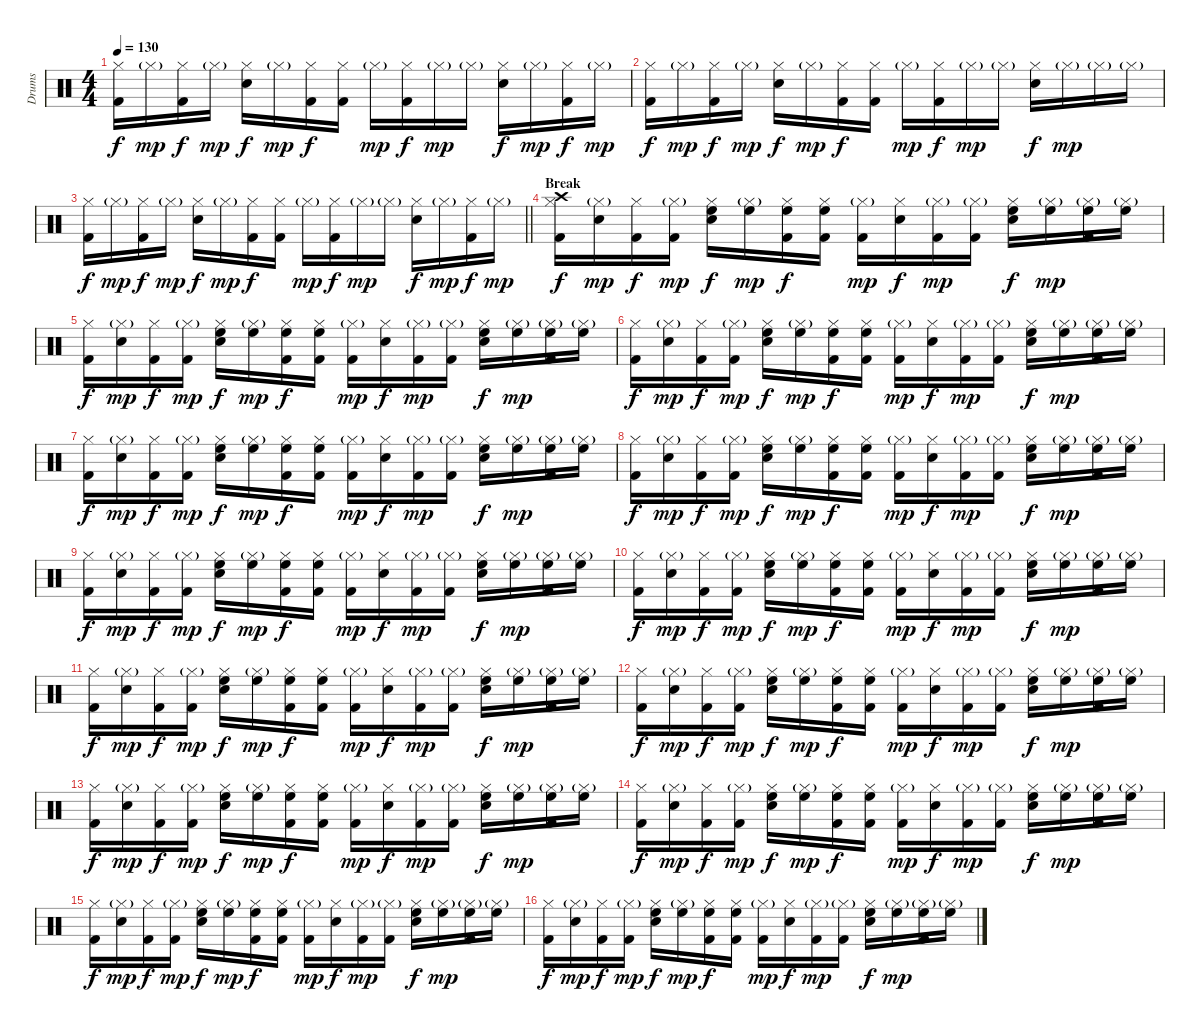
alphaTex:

\track ("Drums" "Drums") {instrument percussion}
\staff {score}
\articulation defaults
\ts (4 4)
\tempo 130
\clef neutral
\ks c
("Hi-Hat (closed)" "Kick (hit) 2").16{dy f} "Hi-Hat (closed)"{g}.16{dy mp} ("Hi-Hat (closed)" "Kick (hit) 2").16{dy f} "Hi-Hat (closed)"{g}.16{dy mp} ("Hi-Hat (closed)" "Snare (hit) 2").16{dy f} "Hi-Hat (closed)"{g}.16{dy mp} ("Hi-Hat (closed)" "Kick (hit) 2").16{dy f} ("Hi-Hat (closed)" "Kick (hit) 2").16 "Hi-Hat (closed)"{g}.16{dy mp} ("Hi-Hat (closed)" "Kick (hit) 2").16{dy f} "Hi-Hat (closed)"{g}.16{dy mp} "Hi-Hat (closed)"{g}.16 ("Hi-Hat (closed)" "Snare (hit) 2").16{dy f} "Hi-Hat (closed)"{g}.16{dy mp} ("Hi-Hat (closed)" "Kick (hit) 2").16{dy f} "Hi-Hat (closed)"{g}.16{dy mp} |
("Hi-Hat (closed)" "Kick (hit) 2").16{dy f} "Hi-Hat (closed)"{g}.16{dy mp} ("Hi-Hat (closed)" "Kick (hit) 2").16{dy f} "Hi-Hat (closed)"{g}.16{dy mp} ("Hi-Hat (closed)" "Snare (hit) 2").16{dy f} "Hi-Hat (closed)"{g}.16{dy mp} ("Hi-Hat (closed)" "Kick (hit) 2").16{dy f} ("Hi-Hat (closed)" "Kick (hit) 2").16 "Hi-Hat (closed)"{g}.16{dy mp} ("Hi-Hat (closed)" "Kick (hit) 2").16{dy f} "Hi-Hat (closed)"{g}.16{dy mp} "Hi-Hat (closed)"{g}.16 ("Hi-Hat (closed)" "Snare (hit) 2").16{dy f} "Hi-Hat (closed)"{g}.16{dy mp} "Hi-Hat (closed)"{g}.16 "Hi-Hat (closed)"{g}.16 |
\barLineRight lightlight
("Hi-Hat (closed)" "Kick (hit) 2").16{dy f} "Hi-Hat (closed)"{g}.16{dy mp} ("Hi-Hat (closed)" "Kick (hit) 2").16{dy f} "Hi-Hat (closed)"{g}.16{dy mp} ("Hi-Hat (closed)" "Snare (hit) 2").16{dy f} "Hi-Hat (closed)"{g}.16{dy mp} ("Hi-Hat (closed)" "Kick (hit) 2").16{dy f} ("Hi-Hat (closed)" "Kick (hit) 2").16 "Hi-Hat (closed)"{g}.16{dy mp} ("Hi-Hat (closed)" "Kick (hit) 2").16{dy f} "Hi-Hat (closed)"{g}.16{dy mp} "Hi-Hat (closed)"{g}.16 ("Hi-Hat (closed)" "Snare (hit) 2").16{dy f} "Hi-Hat (closed)"{g}.16{dy mp} ("Hi-Hat (closed)" "Kick (hit) 2").16{dy f} "Hi-Hat (closed)"{g}.16{dy mp} |
\section ("" "Break")
("Hi-Hat (closed)" "Kick (hit) 2" "Crash high (hit)").16{dy f} ("Hi-Hat (closed)"{g} "Snare (hit) 2").16{dy mp} ("Hi-Hat (closed)" "Kick (hit) 2").16{dy f} ("Hi-Hat (closed)"{g} "Kick (hit) 2").16{dy mp} ("Hi-Hat (closed)" "Snare (hit) 2" "High Floor Tom (hit)").16{dy f} ("Hi-Hat (closed)"{g} "High Floor Tom (hit)").16{dy mp} ("Hi-Hat (closed)" "Kick (hit) 2" "High Floor Tom (hit)").16{dy f} ("Hi-Hat (closed)" "Kick (hit) 2" "High Floor Tom (hit)").16 ("Hi-Hat (closed)"{g} "Kick (hit) 2").16{dy mp} ("Hi-Hat (closed)" "Snare (hit) 2").16{dy f} ("Hi-Hat (closed)"{g} "Kick (hit) 2").16{dy mp} ("Hi-Hat (closed)"{g} "Kick (hit) 2").16 ("Hi-Hat (closed)" "Snare (hit) 2" "High Floor Tom (hit)").16{dy f} ("Hi-Hat (closed)"{g} "High Floor Tom (hit)").16{dy mp} ("Hi-Hat (closed)"{g} "Kick (hit) 2" "High Floor Tom (hit)").16 ("Hi-Hat (closed)"{g} "High Floor Tom (hit)").16 |
("Hi-Hat (closed)" "Kick (hit) 2").16{dy f} ("Hi-Hat (closed)"{g} "Snare (hit) 2").16{dy mp} ("Hi-Hat (closed)" "Kick (hit) 2").16{dy f} ("Hi-Hat (closed)"{g} "Kick (hit) 2").16{dy mp} ("Hi-Hat (closed)" "Snare (hit) 2" "High Floor Tom (hit)").16{dy f} ("Hi-Hat (closed)"{g} "High Floor Tom (hit)").16{dy mp} ("Hi-Hat (closed)" "Kick (hit) 2" "High Floor Tom (hit)").16{dy f} ("Hi-Hat (closed)" "Kick (hit) 2" "High Floor Tom (hit)").16 ("Hi-Hat (closed)"{g} "Kick (hit) 2").16{dy mp} ("Hi-Hat (closed)" "Snare (hit) 2").16{dy f} ("Hi-Hat (closed)"{g} "Kick (hit) 2").16{dy mp} ("Hi-Hat (closed)"{g} "Kick (hit) 2").16 ("Hi-Hat (closed)" "Snare (hit) 2" "High Floor Tom (hit)").16{dy f} ("Hi-Hat (closed)"{g} "High Floor Tom (hit)").16{dy mp} ("Hi-Hat (closed)"{g} "Kick (hit) 2" "High Floor Tom (hit)").16 ("Hi-Hat (closed)"{g} "High Floor Tom (hit)").16 |
("Hi-Hat (closed)" "Kick (hit) 2").16{dy f} ("Hi-Hat (closed)"{g} "Snare (hit) 2").16{dy mp} ("Hi-Hat (closed)" "Kick (hit) 2").16{dy f} ("Hi-Hat (closed)"{g} "Kick (hit) 2").16{dy mp} ("Hi-Hat (closed)" "Snare (hit) 2" "High Floor Tom (hit)").16{dy f} ("Hi-Hat (closed)"{g} "High Floor Tom (hit)").16{dy mp} ("Hi-Hat (closed)" "Kick (hit) 2" "High Floor Tom (hit)").16{dy f} ("Hi-Hat (closed)" "Kick (hit) 2" "High Floor Tom (hit)").16 ("Hi-Hat (closed)"{g} "Kick (hit) 2").16{dy mp} ("Hi-Hat (closed)" "Snare (hit) 2").16{dy f} ("Hi-Hat (closed)"{g} "Kick (hit) 2").16{dy mp} ("Hi-Hat (closed)"{g} "Kick (hit) 2").16 ("Hi-Hat (closed)" "Snare (hit) 2" "High Floor Tom (hit)").16{dy f} ("Hi-Hat (closed)"{g} "High Floor Tom (hit)").16{dy mp} ("Hi-Hat (closed)"{g} "Kick (hit) 2" "High Floor Tom (hit)").16 ("Hi-Hat (closed)"{g} "High Floor Tom (hit)").16 |
("Hi-Hat (closed)" "Kick (hit) 2").16{dy f} ("Hi-Hat (closed)"{g} "Snare (hit) 2").16{dy mp} ("Hi-Hat (closed)" "Kick (hit) 2").16{dy f} ("Hi-Hat (closed)"{g} "Kick (hit) 2").16{dy mp} ("Hi-Hat (closed)" "Snare (hit) 2" "High Floor Tom (hit)").16{dy f} ("Hi-Hat (closed)"{g} "High Floor Tom (hit)").16{dy mp} ("Hi-Hat (closed)" "Kick (hit) 2" "High Floor Tom (hit)").16{dy f} ("Hi-Hat (closed)" "Kick (hit) 2" "High Floor Tom (hit)").16 ("Hi-Hat (closed)"{g} "Kick (hit) 2").16{dy mp} ("Hi-Hat (closed)" "Snare (hit) 2").16{dy f} ("Hi-Hat (closed)"{g} "Kick (hit) 2").16{dy mp} ("Hi-Hat (closed)"{g} "Kick (hit) 2").16 ("Hi-Hat (closed)" "Snare (hit) 2" "High Floor Tom (hit)").16{dy f} ("Hi-Hat (closed)"{g} "High Floor Tom (hit)").16{dy mp} ("Hi-Hat (closed)"{g} "Kick (hit) 2" "High Floor Tom (hit)").16 ("Hi-Hat (closed)"{g} "High Floor Tom (hit)").16 |
("Hi-Hat (closed)" "Kick (hit) 2").16{dy f} ("Hi-Hat (closed)"{g} "Snare (hit) 2").16{dy mp} ("Hi-Hat (closed)" "Kick (hit) 2").16{dy f} ("Hi-Hat (closed)"{g} "Kick (hit) 2").16{dy mp} ("Hi-Hat (closed)" "Snare (hit) 2" "High Floor Tom (hit)").16{dy f} ("Hi-Hat (closed)"{g} "High Floor Tom (hit)").16{dy mp} ("Hi-Hat (closed)" "Kick (hit) 2" "High Floor Tom (hit)").16{dy f} ("Hi-Hat (closed)" "Kick (hit) 2" "High Floor Tom (hit)").16 ("Hi-Hat (closed)"{g} "Kick (hit) 2").16{dy mp} ("Hi-Hat (closed)" "Snare (hit) 2").16{dy f} ("Hi-Hat (closed)"{g} "Kick (hit) 2").16{dy mp} ("Hi-Hat (closed)"{g} "Kick (hit) 2").16 ("Hi-Hat (closed)" "Snare (hit) 2" "High Floor Tom (hit)").16{dy f} ("Hi-Hat (closed)"{g} "High Floor Tom (hit)").16{dy mp} ("Hi-Hat (closed)"{g} "Kick (hit) 2" "High Floor Tom (hit)").16 ("Hi-Hat (closed)"{g} "High Floor Tom (hit)").16 |
("Hi-Hat (closed)" "Kick (hit) 2").16{dy f} ("Hi-Hat (closed)"{g} "Snare (hit) 2").16{dy mp} ("Hi-Hat (closed)" "Kick (hit) 2").16{dy f} ("Hi-Hat (closed)"{g} "Kick (hit) 2").16{dy mp} ("Hi-Hat (closed)" "Snare (hit) 2" "High Floor Tom (hit)").16{dy f} ("Hi-Hat (closed)"{g} "High Floor Tom (hit)").16{dy mp} ("Hi-Hat (closed)" "Kick (hit) 2" "High Floor Tom (hit)").16{dy f} ("Hi-Hat (closed)" "Kick (hit) 2" "High Floor Tom (hit)").16 ("Hi-Hat (closed)"{g} "Kick (hit) 2").16{dy mp} ("Hi-Hat (closed)" "Snare (hit) 2").16{dy f} ("Hi-Hat (closed)"{g} "Kick (hit) 2").16{dy mp} ("Hi-Hat (closed)"{g} "Kick (hit) 2").16 ("Hi-Hat (closed)" "Snare (hit) 2" "High Floor Tom (hit)").16{dy f} ("Hi-Hat (closed)"{g} "High Floor Tom (hit)").16{dy mp} ("Hi-Hat (closed)"{g} "Kick (hit) 2" "High Floor Tom (hit)").16 ("Hi-Hat (closed)"{g} "High Floor Tom (hit)").16 |
("Hi-Hat (closed)" "Kick (hit) 2").16{dy f} ("Hi-Hat (closed)"{g} "Snare (hit) 2").16{dy mp} ("Hi-Hat (closed)" "Kick (hit) 2").16{dy f} ("Hi-Hat (closed)"{g} "Kick (hit) 2").16{dy mp} ("Hi-Hat (closed)" "Snare (hit) 2" "High Floor Tom (hit)").16{dy f} ("Hi-Hat (closed)"{g} "High Floor Tom (hit)").16{dy mp} ("Hi-Hat (closed)" "Kick (hit) 2" "High Floor Tom (hit)").16{dy f} ("Hi-Hat (closed)" "Kick (hit) 2" "High Floor Tom (hit)").16 ("Hi-Hat (closed)"{g} "Kick (hit) 2").16{dy mp} ("Hi-Hat (closed)" "Snare (hit) 2").16{dy f} ("Hi-Hat (closed)"{g} "Kick (hit) 2").16{dy mp} ("Hi-Hat (closed)"{g} "Kick (hit) 2").16 ("Hi-Hat (closed)" "Snare (hit) 2" "High Floor Tom (hit)").16{dy f} ("Hi-Hat (closed)"{g} "High Floor Tom (hit)").16{dy mp} ("Hi-Hat (closed)"{g} "Kick (hit) 2" "High Floor Tom (hit)").16 ("Hi-Hat (closed)"{g} "High Floor Tom (hit)").16 |
("Hi-Hat (closed)" "Kick (hit) 2").16{dy f} ("Hi-Hat (closed)"{g} "Snare (hit) 2").16{dy mp} ("Hi-Hat (closed)" "Kick (hit) 2").16{dy f} ("Hi-Hat (closed)"{g} "Kick (hit) 2").16{dy mp} ("Hi-Hat (closed)" "Snare (hit) 2" "High Floor Tom (hit)").16{dy f} ("Hi-Hat (closed)"{g} "High Floor Tom (hit)").16{dy mp} ("Hi-Hat (closed)" "Kick (hit) 2" "High Floor Tom (hit)").16{dy f} ("Hi-Hat (closed)" "Kick (hit) 2" "High Floor Tom (hit)").16 ("Hi-Hat (closed)"{g} "Kick (hit) 2").16{dy mp} ("Hi-Hat (closed)" "Snare (hit) 2").16{dy f} ("Hi-Hat (closed)"{g} "Kick (hit) 2").16{dy mp} ("Hi-Hat (closed)"{g} "Kick (hit) 2").16 ("Hi-Hat (closed)" "Snare (hit) 2" "High Floor Tom (hit)").16{dy f} ("Hi-Hat (closed)"{g} "High Floor Tom (hit)").16{dy mp} ("Hi-Hat (closed)"{g} "Kick (hit) 2" "High Floor Tom (hit)").16 ("Hi-Hat (closed)"{g} "High Floor Tom (hit)").16 |
("Hi-Hat (closed)" "Kick (hit) 2").16{dy f} ("Hi-Hat (closed)"{g} "Snare (hit) 2").16{dy mp} ("Hi-Hat (closed)" "Kick (hit) 2").16{dy f} ("Hi-Hat (closed)"{g} "Kick (hit) 2").16{dy mp} ("Hi-Hat (closed)" "Snare (hit) 2" "High Floor Tom (hit)").16{dy f} ("Hi-Hat (closed)"{g} "High Floor Tom (hit)").16{dy mp} ("Hi-Hat (closed)" "Kick (hit) 2" "High Floor Tom (hit)").16{dy f} ("Hi-Hat (closed)" "Kick (hit) 2" "High Floor Tom (hit)").16 ("Hi-Hat (closed)"{g} "Kick (hit) 2").16{dy mp} ("Hi-Hat (closed)" "Snare (hit) 2").16{dy f} ("Hi-Hat (closed)"{g} "Kick (hit) 2").16{dy mp} ("Hi-Hat (closed)"{g} "Kick (hit) 2").16 ("Hi-Hat (closed)" "Snare (hit) 2" "High Floor Tom (hit)").16{dy f} ("Hi-Hat (closed)"{g} "High Floor Tom (hit)").16{dy mp} ("Hi-Hat (closed)"{g} "Kick (hit) 2" "High Floor Tom (hit)").16 ("Hi-Hat (closed)"{g} "High Floor Tom (hit)").16 |
("Hi-Hat (closed)" "Kick (hit) 2").16{dy f} ("Hi-Hat (closed)"{g} "Snare (hit) 2").16{dy mp} ("Hi-Hat (closed)" "Kick (hit) 2").16{dy f} ("Hi-Hat (closed)"{g} "Kick (hit) 2").16{dy mp} ("Hi-Hat (closed)" "Snare (hit) 2" "High Floor Tom (hit)").16{dy f} ("Hi-Hat (closed)"{g} "High Floor Tom (hit)").16{dy mp} ("Hi-Hat (closed)" "Kick (hit) 2" "High Floor Tom (hit)").16{dy f} ("Hi-Hat (closed)" "Kick (hit) 2" "High Floor Tom (hit)").16 ("Hi-Hat (closed)"{g} "Kick (hit) 2").16{dy mp} ("Hi-Hat (closed)" "Snare (hit) 2").16{dy f} ("Hi-Hat (closed)"{g} "Kick (hit) 2").16{dy mp} ("Hi-Hat (closed)"{g} "Kick (hit) 2").16 ("Hi-Hat (closed)" "Snare (hit) 2" "High Floor Tom (hit)").16{dy f} ("Hi-Hat (closed)"{g} "High Floor Tom (hit)").16{dy mp} ("Hi-Hat (closed)"{g} "Kick (hit) 2" "High Floor Tom (hit)").16 ("Hi-Hat (closed)"{g} "High Floor Tom (hit)").16 |
("Hi-Hat (closed)" "Kick (hit) 2").16{dy f} ("Hi-Hat (closed)"{g} "Snare (hit) 2").16{dy mp} ("Hi-Hat (closed)" "Kick (hit) 2").16{dy f} ("Hi-Hat (closed)"{g} "Kick (hit) 2").16{dy mp} ("Hi-Hat (closed)" "Snare (hit) 2" "High Floor Tom (hit)").16{dy f} ("Hi-Hat (closed)"{g} "High Floor Tom (hit)").16{dy mp} ("Hi-Hat (closed)" "Kick (hit) 2" "High Floor Tom (hit)").16{dy f} ("Hi-Hat (closed)" "Kick (hit) 2" "High Floor Tom (hit)").16 ("Hi-Hat (closed)"{g} "Kick (hit) 2").16{dy mp} ("Hi-Hat (closed)" "Snare (hit) 2").16{dy f} ("Hi-Hat (closed)"{g} "Kick (hit) 2").16{dy mp} ("Hi-Hat (closed)"{g} "Kick (hit) 2").16 ("Hi-Hat (closed)" "Snare (hit) 2" "High Floor Tom (hit)").16{dy f} ("Hi-Hat (closed)"{g} "High Floor Tom (hit)").16{dy mp} ("Hi-Hat (closed)"{g} "Kick (hit) 2" "High Floor Tom (hit)").16 ("Hi-Hat (closed)"{g} "High Floor Tom (hit)").16 |
("Hi-Hat (closed)" "Kick (hit) 2").16{dy f} ("Hi-Hat (closed)"{g} "Snare (hit) 2").16{dy mp} ("Hi-Hat (closed)" "Kick (hit) 2").16{dy f} ("Hi-Hat (closed)"{g} "Kick (hit) 2").16{dy mp} ("Hi-Hat (closed)" "Snare (hit) 2" "High Floor Tom (hit)").16{dy f} ("Hi-Hat (closed)"{g} "High Floor Tom (hit)").16{dy mp} ("Hi-Hat (closed)" "Kick (hit) 2" "High Floor Tom (hit)").16{dy f} ("Hi-Hat (closed)" "Kick (hit) 2" "High Floor Tom (hit)").16 ("Hi-Hat (closed)"{g} "Kick (hit) 2").16{dy mp} ("Hi-Hat (closed)" "Snare (hit) 2").16{dy f} ("Hi-Hat (closed)"{g} "Kick (hit) 2").16{dy mp} ("Hi-Hat (closed)"{g} "Kick (hit) 2").16 ("Hi-Hat (closed)" "Snare (hit) 2" "High Floor Tom (hit)").16{dy f} ("Hi-Hat (closed)"{g} "High Floor Tom (hit)").16{dy mp} ("Hi-Hat (closed)"{g} "Kick (hit) 2" "High Floor Tom (hit)").16 ("Hi-Hat (closed)"{g} "High Floor Tom (hit)").16 |
("Hi-Hat (closed)" "Kick (hit) 2").16{dy f} ("Hi-Hat (closed)"{g} "Snare (hit) 2").16{dy mp} ("Hi-Hat (closed)" "Kick (hit) 2").16{dy f} ("Hi-Hat (closed)"{g} "Kick (hit) 2").16{dy mp} ("Hi-Hat (closed)" "Snare (hit) 2" "High Floor Tom (hit)").16{dy f} ("Hi-Hat (closed)"{g} "High Floor Tom (hit)").16{dy mp} ("Hi-Hat (closed)" "Kick (hit) 2" "High Floor Tom (hit)").16{dy f} ("Hi-Hat (closed)" "Kick (hit) 2" "High Floor Tom (hit)").16 ("Hi-Hat (closed)"{g} "Kick (hit) 2").16{dy mp} ("Hi-Hat (closed)" "Snare (hit) 2").16{dy f} ("Hi-Hat (closed)"{g} "Kick (hit) 2").16{dy mp} ("Hi-Hat (closed)"{g} "Kick (hit) 2").16 ("Hi-Hat (closed)" "Snare (hit) 2" "High Floor Tom (hit)").16{dy f} ("Hi-Hat (closed)"{g} "High Floor Tom (hit)").16{dy mp} ("Hi-Hat (closed)"{g} "Kick (hit) 2" "High Floor Tom (hit)").16 ("Hi-Hat (closed)"{g} "High Floor Tom (hit)").16
